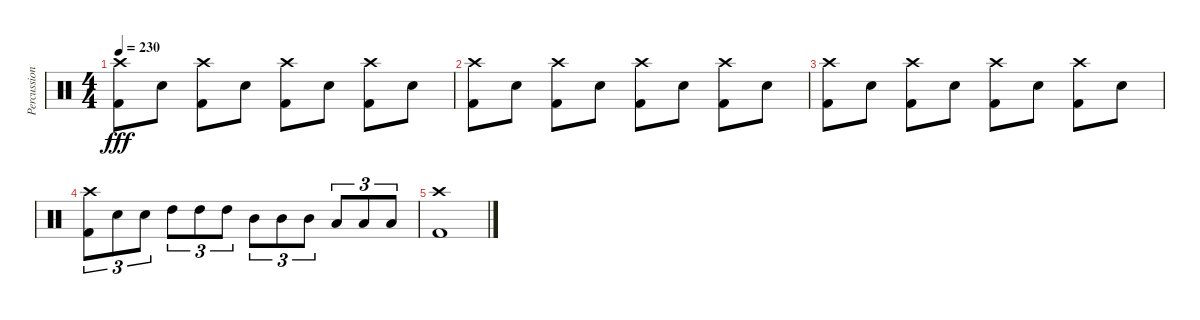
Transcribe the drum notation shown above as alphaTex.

\track ("Percussion" "Percussion") {instrument percussion}
\staff {score}
\articulation defaults
\ts (4 4)
\tempo 230
\clef neutral
\ks c
("Kick (hit) 2" "Crash high (hit)").8{dy fff} "Electric Snare (hit)".8 ("Kick (hit) 2" "Crash high (hit)").8 "Electric Snare (hit)".8 ("Kick (hit) 2" "Crash high (hit)").8 "Electric Snare (hit)".8 ("Kick (hit) 2" "Crash high (hit)").8 "Electric Snare (hit)".8 |
("Kick (hit) 2" "Crash high (hit)").8 "Electric Snare (hit)".8 ("Kick (hit) 2" "Crash high (hit)").8 "Electric Snare (hit)".8 ("Kick (hit) 2" "Crash high (hit)").8 "Electric Snare (hit)".8 ("Kick (hit) 2" "Crash high (hit)").8 "Electric Snare (hit)".8 |
("Kick (hit) 2" "Crash high (hit)").8 "Electric Snare (hit)".8 ("Kick (hit) 2" "Crash high (hit)").8 "Electric Snare (hit)".8 ("Kick (hit) 2" "Crash high (hit)").8 "Electric Snare (hit)".8 ("Kick (hit) 2" "Crash high (hit)").8 "Electric Snare (hit)".8 |
("Kick (hit) 2" "Crash high (hit)").8{tu (3 2)} "Electric Snare (hit)".8{tu (3 2)} "Electric Snare (hit)".8{tu (3 2)} "High Tom (hit)".8{tu (3 2)} "High Tom (hit)".8{tu (3 2)} "High Tom (hit)".8{tu (3 2)} "Mid Tom (hit)".8{tu (3 2)} "Mid Tom (hit)".8{tu (3 2)} "Mid Tom (hit)".8{tu (3 2)} "Low Tom (hit)".8{tu (3 2)} "Low Tom (hit)".8{tu (3 2)} "Low Tom (hit)".8{tu (3 2)} |
("Kick (hit) 2" "Crash high (hit)").1
